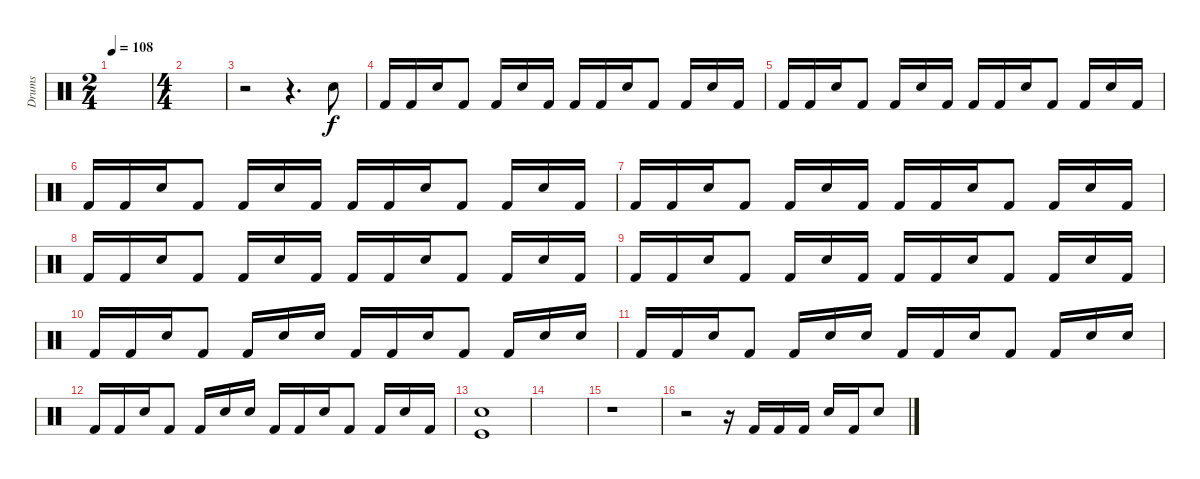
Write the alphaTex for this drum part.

\track ("Drums" "Drums") {instrument percussion}
\staff {score}
\articulation defaults
\ts (2 4)
\tempo 108
\clef neutral
\ks c
|
\ts (4 4)
|
r.2 r.4{d} "Snare (hit) 2".8 |
"Kick (hit) 2".16 "Kick (hit) 2".16 "Snare (hit) 2".16 "Kick (hit) 2".8 "Kick (hit) 2".16 "Snare (hit) 2".16 "Kick (hit) 2".16 "Kick (hit) 2".16 "Kick (hit) 2".16 "Snare (hit) 2".16 "Kick (hit) 2".8 "Kick (hit) 2".16 "Snare (hit) 2".16 "Kick (hit) 2".16 |
"Kick (hit) 2".16 "Kick (hit) 2".16 "Snare (hit) 2".16 "Kick (hit) 2".8 "Kick (hit) 2".16 "Snare (hit) 2".16 "Kick (hit) 2".16 "Kick (hit) 2".16 "Kick (hit) 2".16 "Snare (hit) 2".16 "Kick (hit) 2".8 "Kick (hit) 2".16 "Snare (hit) 2".16 "Kick (hit) 2".16 |
"Kick (hit) 2".16 "Kick (hit) 2".16 "Snare (hit) 2".16 "Kick (hit) 2".8 "Kick (hit) 2".16 "Snare (hit) 2".16 "Kick (hit) 2".16 "Kick (hit) 2".16 "Kick (hit) 2".16 "Snare (hit) 2".16 "Kick (hit) 2".8 "Kick (hit) 2".16 "Snare (hit) 2".16 "Kick (hit) 2".16 |
"Kick (hit) 2".16 "Kick (hit) 2".16 "Snare (hit) 2".16 "Kick (hit) 2".8 "Kick (hit) 2".16 "Snare (hit) 2".16 "Kick (hit) 2".16 "Kick (hit) 2".16 "Kick (hit) 2".16 "Snare (hit) 2".16 "Kick (hit) 2".8 "Kick (hit) 2".16 "Snare (hit) 2".16 "Kick (hit) 2".16 |
"Kick (hit) 2".16 "Kick (hit) 2".16 "Snare (hit) 2".16 "Kick (hit) 2".8 "Kick (hit) 2".16 "Snare (hit) 2".16 "Kick (hit) 2".16 "Kick (hit) 2".16 "Kick (hit) 2".16 "Snare (hit) 2".16 "Kick (hit) 2".8 "Kick (hit) 2".16 "Snare (hit) 2".16 "Kick (hit) 2".16 |
"Kick (hit) 2".16 "Kick (hit) 2".16 "Snare (hit) 2".16 "Kick (hit) 2".8 "Kick (hit) 2".16 "Snare (hit) 2".16 "Kick (hit) 2".16 "Kick (hit) 2".16 "Kick (hit) 2".16 "Snare (hit) 2".16 "Kick (hit) 2".8 "Kick (hit) 2".16 "Snare (hit) 2".16 "Kick (hit) 2".16 |
"Kick (hit) 2".16 "Kick (hit) 2".16 "Snare (hit) 2".16 "Kick (hit) 2".8 "Kick (hit) 2".16 "Snare (hit) 2".16 "Snare (hit) 2".16 "Kick (hit) 2".16 "Kick (hit) 2".16 "Snare (hit) 2".16 "Kick (hit) 2".8 "Kick (hit) 2".16 "Snare (hit) 2".16 "Snare (hit) 2".16 |
"Kick (hit) 2".16 "Kick (hit) 2".16 "Snare (hit) 2".16 "Kick (hit) 2".8 "Kick (hit) 2".16 "Snare (hit) 2".16 "Snare (hit) 2".16 "Kick (hit) 2".16 "Kick (hit) 2".16 "Snare (hit) 2".16 "Kick (hit) 2".8 "Kick (hit) 2".16 "Snare (hit) 2".16 "Snare (hit) 2".16 |
"Kick (hit) 2".16 "Kick (hit) 2".16 "Snare (hit) 2".16 "Kick (hit) 2".8 "Kick (hit) 2".16 "Snare (hit) 2".16 "Snare (hit) 2".16 "Kick (hit) 2".16 "Kick (hit) 2".16 "Snare (hit) 2".16 "Kick (hit) 2".8 "Kick (hit) 2".16 "Snare (hit) 2".16 "Kick (hit) 2".16 |
("Kick (hit)" "Snare (hit) 2").1 |
|
r.1 |
r.2 r.16 "Kick (hit) 2".16 "Kick (hit) 2".16 "Kick (hit) 2".16 "Snare (hit) 2".16 "Kick (hit) 2".16 "Snare (hit) 2".8
